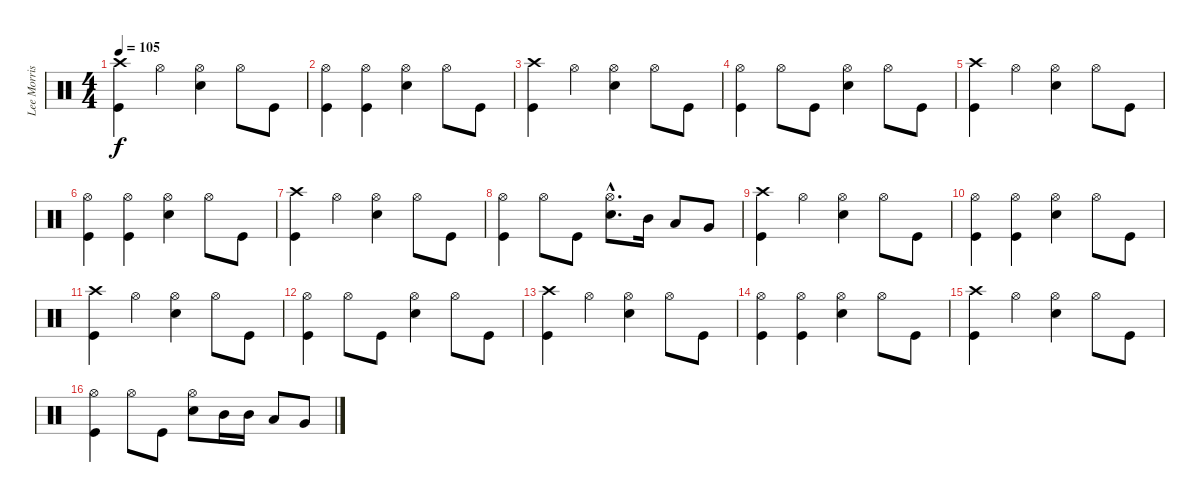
\track ("Lee Morris" "Lee Morris") {instrument percussion}
\staff {score}
\articulation defaults
\ts (4 4)
\tempo 105
\clef neutral
\ks c
("Kick (hit)" "Crash high (hit)").4{dy f} "Hi-Hat (open)".4 ("Snare (hit) 2" "Hi-Hat (open)").4 "Hi-Hat (open)".8 "Kick (hit)".8 |
("Kick (hit)" "Hi-Hat (open)").4 ("Kick (hit)" "Hi-Hat (open)").4 ("Snare (hit) 2" "Hi-Hat (open)").4 "Hi-Hat (open)".8 "Kick (hit)".8 |
("Kick (hit)" "Crash high (hit)").4 "Hi-Hat (open)".4 ("Snare (hit) 2" "Hi-Hat (open)").4 "Hi-Hat (open)".8 "Kick (hit)".8 |
("Kick (hit)" "Hi-Hat (open)").4 "Hi-Hat (open)".8 "Kick (hit)".8 ("Snare (hit) 2" "Hi-Hat (open)").4 "Hi-Hat (open)".8 "Kick (hit)".8 |
("Kick (hit)" "Crash high (hit)").4 "Hi-Hat (open)".4 ("Snare (hit) 2" "Hi-Hat (open)").4 "Hi-Hat (open)".8 "Kick (hit)".8 |
("Kick (hit)" "Hi-Hat (open)").4 ("Kick (hit)" "Hi-Hat (open)").4 ("Snare (hit) 2" "Hi-Hat (open)").4 "Hi-Hat (open)".8 "Kick (hit)".8 |
("Kick (hit)" "Crash high (hit)").4 "Hi-Hat (open)".4 ("Snare (hit) 2" "Hi-Hat (open)").4 "Hi-Hat (open)".8 "Kick (hit)".8 |
("Kick (hit)" "Hi-Hat (open)").4 "Hi-Hat (open)".8 "Kick (hit)".8 ("Snare (hit) 2"{hac} "Hi-Hat (open)"{hac}).8{d} "Mid Tom (hit)".16 "Low Tom (hit)".8 "Very Low Tom (hit)".8 |
("Kick (hit)" "Crash high (hit)").4 "Hi-Hat (open)".4 ("Snare (hit) 2" "Hi-Hat (open)").4 "Hi-Hat (open)".8 "Kick (hit)".8 |
("Kick (hit)" "Hi-Hat (open)").4 ("Kick (hit)" "Hi-Hat (open)").4 ("Snare (hit) 2" "Hi-Hat (open)").4 "Hi-Hat (open)".8 "Kick (hit)".8 |
("Kick (hit)" "Crash high (hit)").4 "Hi-Hat (open)".4 ("Snare (hit) 2" "Hi-Hat (open)").4 "Hi-Hat (open)".8 "Kick (hit)".8 |
("Kick (hit)" "Hi-Hat (open)").4 "Hi-Hat (open)".8 "Kick (hit)".8 ("Snare (hit) 2" "Hi-Hat (open)").4 "Hi-Hat (open)".8 "Kick (hit)".8 |
("Kick (hit)" "Crash high (hit)").4 "Hi-Hat (open)".4 ("Snare (hit) 2" "Hi-Hat (open)").4 "Hi-Hat (open)".8 "Kick (hit)".8 |
("Kick (hit)" "Hi-Hat (open)").4 ("Kick (hit)" "Hi-Hat (open)").4 ("Snare (hit) 2" "Hi-Hat (open)").4 "Hi-Hat (open)".8 "Kick (hit)".8 |
("Kick (hit)" "Crash high (hit)").4 "Hi-Hat (open)".4 ("Snare (hit) 2" "Hi-Hat (open)").4 "Hi-Hat (open)".8 "Kick (hit)".8 |
("Kick (hit)" "Hi-Hat (open)").4 "Hi-Hat (open)".8 "Kick (hit)".8 ("Snare (hit) 2" "Hi-Hat (open)").8 "Mid Tom (hit)".16 "Mid Tom (hit)".16 "Low Tom (hit)".8 "Very Low Tom (hit)".8
